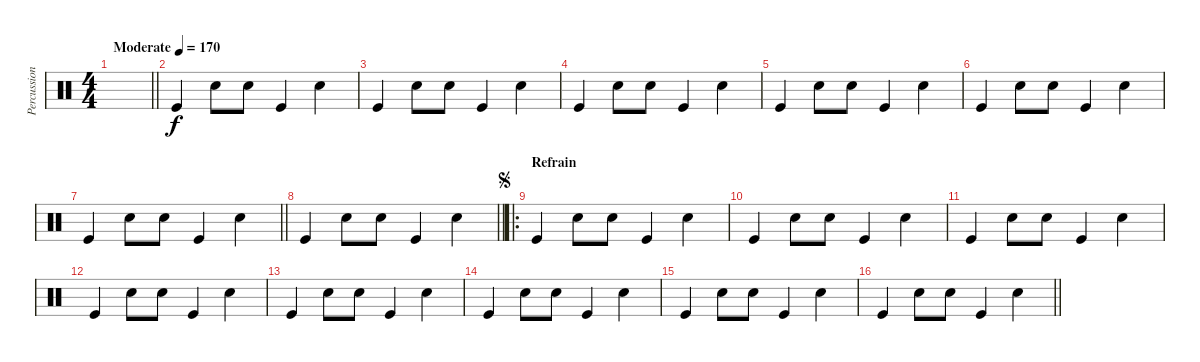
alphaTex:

\track ("Percussions" "Percussion") {instrument percussion}
\staff {score}
\articulation defaults
\ts (4 4)
\tempo (170 "Moderate")
\clef neutral
\barLineRight lightlight
\ks c
|
\section ("" "")
"Kick (hit)".4 "Snare (hit) 2".8 "Snare (hit) 2".8 "Kick (hit)".4 "Snare (hit) 2".4 |
"Kick (hit)".4 "Snare (hit) 2".8 "Snare (hit) 2".8 "Kick (hit)".4 "Snare (hit) 2".4 |
"Kick (hit)".4 "Snare (hit) 2".8 "Snare (hit) 2".8 "Kick (hit)".4 "Snare (hit) 2".4 |
"Kick (hit)".4 "Snare (hit) 2".8 "Snare (hit) 2".8 "Kick (hit)".4 "Snare (hit) 2".4 |
"Kick (hit)".4 "Snare (hit) 2".8 "Snare (hit) 2".8 "Kick (hit)".4 "Snare (hit) 2".4 |
\barLineRight lightlight "Kick (hit)".4 "Snare (hit) 2".8 "Snare (hit) 2".8 "Kick (hit)".4 "Snare (hit) 2".4
|
\barLineRight lightlight "Kick (hit)".4 "Snare (hit) 2".8 "Snare (hit) 2".8 "Kick (hit)".4 "Snare (hit) 2".4
|
\ro
\section ("" "Refrain ")
\jump segno "Kick (hit)".4 "Snare (hit) 2".8 "Snare (hit) 2".8 "Kick (hit)".4 "Snare (hit) 2".4
|
"Kick (hit)".4 "Snare (hit) 2".8 "Snare (hit) 2".8 "Kick (hit)".4 "Snare (hit) 2".4 |
"Kick (hit)".4 "Snare (hit) 2".8 "Snare (hit) 2".8 "Kick (hit)".4 "Snare (hit) 2".4 |
"Kick (hit)".4 "Snare (hit) 2".8 "Snare (hit) 2".8 "Kick (hit)".4 "Snare (hit) 2".4 |
"Kick (hit)".4 "Snare (hit) 2".8 "Snare (hit) 2".8 "Kick (hit)".4 "Snare (hit) 2".4 |
"Kick (hit)".4 "Snare (hit) 2".8 "Snare (hit) 2".8 "Kick (hit)".4 "Snare (hit) 2".4 |
"Kick (hit)".4 "Snare (hit) 2".8 "Snare (hit) 2".8 "Kick (hit)".4 "Snare (hit) 2".4 |
\barLineRight lightlight "Kick (hit)".4 "Snare (hit) 2".8 "Snare (hit) 2".8 "Kick (hit)".4 "Snare (hit) 2".4
